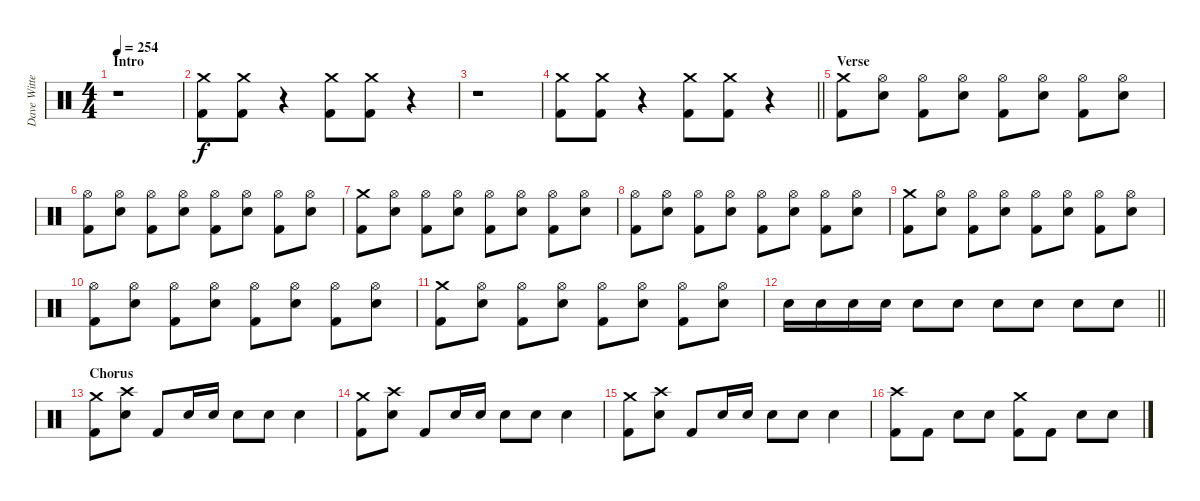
\track ("Dave Witte (Drums)" "Dave Witte") {instrument percussion}
\staff {score}
\articulation defaults
\ts (4 4)
\section ("" "Intro")
\tempo 254
\clef neutral
\ks c
r.1{dy f} |
("Crash medium (hit)" "Kick (hit) 2").8 ("Crash medium (hit)" "Kick (hit) 2").8 r.4 ("Crash medium (hit)" "Kick (hit) 2").8 ("Crash medium (hit)" "Kick (hit) 2").8 r.4{volume 0} |
r.1 |
\barLineRight lightlight
("Crash medium (hit)" "Kick (hit) 2").8{volume 14} ("Crash medium (hit)" "Kick (hit) 2").8 r.4 ("Crash medium (hit)" "Kick (hit) 2").8 ("Crash medium (hit)" "Kick (hit) 2").8 r.4{volume 0} |
\section ("" "Verse")
("Crash medium (hit)" "Kick (hit) 2").8{volume 14} ("Hi-Hat (open)" "Electric Snare (hit)").8 ("Hi-Hat (open)" "Kick (hit) 2").8 ("Hi-Hat (open)" "Electric Snare (hit)").8 ("Hi-Hat (open)" "Kick (hit) 2").8 ("Hi-Hat (open)" "Electric Snare (hit)").8 ("Hi-Hat (open)" "Kick (hit) 2").8 ("Hi-Hat (open)" "Electric Snare (hit)").8 |
("Hi-Hat (open)" "Kick (hit) 2").8 ("Hi-Hat (open)" "Electric Snare (hit)").8 ("Hi-Hat (open)" "Kick (hit) 2").8 ("Hi-Hat (open)" "Electric Snare (hit)").8 ("Hi-Hat (open)" "Kick (hit) 2").8 ("Hi-Hat (open)" "Electric Snare (hit)").8 ("Hi-Hat (open)" "Kick (hit) 2").8 ("Hi-Hat (open)" "Electric Snare (hit)").8 |
("Crash medium (hit)" "Kick (hit) 2").8 ("Hi-Hat (open)" "Electric Snare (hit)").8 ("Hi-Hat (open)" "Kick (hit) 2").8 ("Hi-Hat (open)" "Electric Snare (hit)").8 ("Hi-Hat (open)" "Kick (hit) 2").8 ("Hi-Hat (open)" "Electric Snare (hit)").8 ("Hi-Hat (open)" "Kick (hit) 2").8 ("Hi-Hat (open)" "Electric Snare (hit)").8 |
("Hi-Hat (open)" "Kick (hit) 2").8 ("Hi-Hat (open)" "Electric Snare (hit)").8 ("Hi-Hat (open)" "Kick (hit) 2").8 ("Hi-Hat (open)" "Electric Snare (hit)").8 ("Hi-Hat (open)" "Kick (hit) 2").8 ("Hi-Hat (open)" "Electric Snare (hit)").8 ("Hi-Hat (open)" "Kick (hit) 2").8 ("Hi-Hat (open)" "Electric Snare (hit)").8 |
("Crash medium (hit)" "Kick (hit) 2").8 ("Hi-Hat (open)" "Electric Snare (hit)").8 ("Hi-Hat (open)" "Kick (hit) 2").8 ("Hi-Hat (open)" "Electric Snare (hit)").8 ("Hi-Hat (open)" "Kick (hit) 2").8 ("Hi-Hat (open)" "Electric Snare (hit)").8 ("Hi-Hat (open)" "Kick (hit) 2").8 ("Hi-Hat (open)" "Electric Snare (hit)").8 |
("Hi-Hat (open)" "Kick (hit) 2").8 ("Hi-Hat (open)" "Electric Snare (hit)").8 ("Hi-Hat (open)" "Kick (hit) 2").8 ("Hi-Hat (open)" "Electric Snare (hit)").8 ("Hi-Hat (open)" "Kick (hit) 2").8 ("Hi-Hat (open)" "Electric Snare (hit)").8 ("Hi-Hat (open)" "Kick (hit) 2").8 ("Hi-Hat (open)" "Electric Snare (hit)").8 |
("Crash medium (hit)" "Kick (hit) 2").8 ("Hi-Hat (open)" "Electric Snare (hit)").8 ("Hi-Hat (open)" "Kick (hit) 2").8 ("Hi-Hat (open)" "Electric Snare (hit)").8 ("Hi-Hat (open)" "Kick (hit) 2").8 ("Hi-Hat (open)" "Electric Snare (hit)").8 ("Hi-Hat (open)" "Kick (hit) 2").8 ("Hi-Hat (open)" "Electric Snare (hit)").8 |
\barLineRight lightlight "Electric Snare (hit)".16 "Electric Snare (hit)".16 "Electric Snare (hit)".16 "Electric Snare (hit)".16 "Electric Snare (hit)".8 "Electric Snare (hit)".8 "Electric Snare (hit)".8 "Electric Snare (hit)".8 "Electric Snare (hit)".8 "Electric Snare (hit)".8
|
\section ("" "Chorus")
("Crash medium (hit)" "Kick (hit) 2").8 ("Crash high (hit)" "Electric Snare (hit)").8 "Kick (hit) 2".8 "Electric Snare (hit)".16 "Electric Snare (hit)".16 "Electric Snare (hit)".8 "Electric Snare (hit)".8 "Electric Snare (hit)".4 |
("Crash medium (hit)" "Kick (hit) 2").8 ("Crash high (hit)" "Electric Snare (hit)").8 "Kick (hit) 2".8 "Electric Snare (hit)".16 "Electric Snare (hit)".16 "Electric Snare (hit)".8 "Electric Snare (hit)".8 "Electric Snare (hit)".4 |
("Crash medium (hit)" "Kick (hit) 2").8 ("Crash high (hit)" "Electric Snare (hit)").8 "Kick (hit) 2".8 "Electric Snare (hit)".16 "Electric Snare (hit)".16 "Electric Snare (hit)".8 "Electric Snare (hit)".8 "Electric Snare (hit)".4 |
("Crash high (hit)" "Kick (hit) 2").8 "Kick (hit) 2".8 "Electric Snare (hit)".8 "Electric Snare (hit)".8 ("Crash medium (hit)" "Kick (hit) 2").8 "Kick (hit) 2".8 "Electric Snare (hit)".8 "Electric Snare (hit)".8
